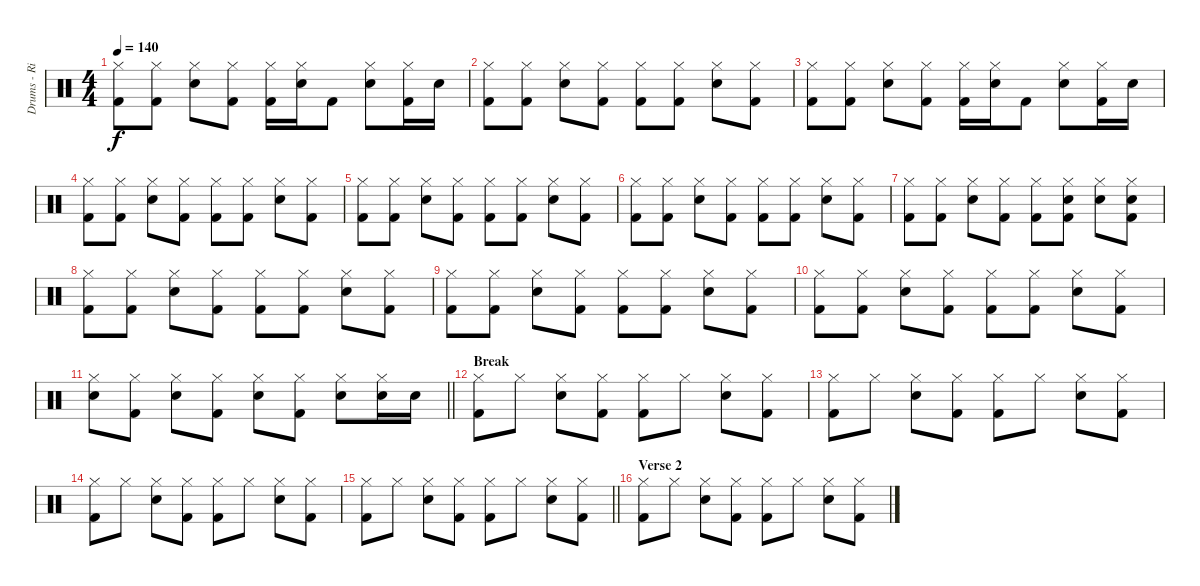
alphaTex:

\track ("Drums - Richard Thomas" "Drums - Ri") {instrument percussion}
\staff {score}
\articulation defaults
\ts (4 4)
\tempo 140
\clef neutral
\ks c
("Kick (hit) 2" "Hi-Hat (closed)").8{dy f} ("Kick (hit) 2" "Hi-Hat (closed)").8 ("Electric Snare (hit)" "Hi-Hat (closed)").8 ("Kick (hit) 2" "Hi-Hat (closed)").8 ("Kick (hit) 2" "Hi-Hat (closed)").16 ("Electric Snare (hit)" "Hi-Hat (closed)").16 "Kick (hit) 2".8 ("Electric Snare (hit)" "Hi-Hat (closed)").8 ("Kick (hit) 2" "Hi-Hat (closed)").16 "Electric Snare (hit)".16 |
("Kick (hit) 2" "Hi-Hat (closed)").8 ("Kick (hit) 2" "Hi-Hat (closed)").8 ("Electric Snare (hit)" "Hi-Hat (closed)").8 ("Kick (hit) 2" "Hi-Hat (closed)").8 ("Kick (hit) 2" "Hi-Hat (closed)").8 ("Kick (hit) 2" "Hi-Hat (closed)").8 ("Electric Snare (hit)" "Hi-Hat (closed)").8 ("Kick (hit) 2" "Hi-Hat (closed)").8 |
("Kick (hit) 2" "Hi-Hat (closed)").8 ("Kick (hit) 2" "Hi-Hat (closed)").8 ("Electric Snare (hit)" "Hi-Hat (closed)").8 ("Kick (hit) 2" "Hi-Hat (closed)").8 ("Kick (hit) 2" "Hi-Hat (closed)").16 ("Electric Snare (hit)" "Hi-Hat (closed)").16 "Kick (hit) 2".8 ("Electric Snare (hit)" "Hi-Hat (closed)").8 ("Kick (hit) 2" "Hi-Hat (closed)").16 "Electric Snare (hit)".16 |
("Kick (hit) 2" "Hi-Hat (closed)").8 ("Kick (hit) 2" "Hi-Hat (closed)").8 ("Electric Snare (hit)" "Hi-Hat (closed)").8 ("Kick (hit) 2" "Hi-Hat (closed)").8 ("Kick (hit) 2" "Hi-Hat (closed)").8 ("Kick (hit) 2" "Hi-Hat (closed)").8 ("Electric Snare (hit)" "Hi-Hat (closed)").8 ("Kick (hit) 2" "Hi-Hat (closed)").8 |
("Kick (hit) 2" "Hi-Hat (closed)").8 ("Kick (hit) 2" "Hi-Hat (closed)").8 ("Electric Snare (hit)" "Hi-Hat (closed)").8 ("Kick (hit) 2" "Hi-Hat (closed)").8 ("Kick (hit) 2" "Hi-Hat (closed)").8 ("Kick (hit) 2" "Hi-Hat (closed)").8 ("Electric Snare (hit)" "Hi-Hat (closed)").8 ("Kick (hit) 2" "Hi-Hat (closed)").8 |
("Kick (hit) 2" "Hi-Hat (closed)").8 ("Kick (hit) 2" "Hi-Hat (closed)").8 ("Electric Snare (hit)" "Hi-Hat (closed)").8 ("Kick (hit) 2" "Hi-Hat (closed)").8 ("Kick (hit) 2" "Hi-Hat (closed)").8 ("Kick (hit) 2" "Hi-Hat (closed)").8 ("Electric Snare (hit)" "Hi-Hat (closed)").8 ("Kick (hit) 2" "Hi-Hat (closed)").8 |
("Kick (hit) 2" "Hi-Hat (closed)").8 ("Kick (hit) 2" "Hi-Hat (closed)").8 ("Electric Snare (hit)" "Hi-Hat (closed)").8 ("Kick (hit) 2" "Hi-Hat (closed)").8 ("Kick (hit) 2" "Hi-Hat (closed)").8 ("Electric Snare (hit)" "Kick (hit) 2" "Hi-Hat (closed)").8 ("Electric Snare (hit)" "Hi-Hat (closed)").8 ("Electric Snare (hit)" "Kick (hit) 2" "Hi-Hat (closed)").8 |
("Kick (hit) 2" "Hi-Hat (closed)").8 ("Kick (hit) 2" "Hi-Hat (closed)").8 ("Electric Snare (hit)" "Hi-Hat (closed)").8 ("Kick (hit) 2" "Hi-Hat (closed)").8 ("Kick (hit) 2" "Hi-Hat (closed)").8 ("Kick (hit) 2" "Hi-Hat (closed)").8 ("Electric Snare (hit)" "Hi-Hat (closed)").8 ("Kick (hit) 2" "Hi-Hat (closed)").8 |
("Kick (hit) 2" "Hi-Hat (closed)").8 ("Kick (hit) 2" "Hi-Hat (closed)").8 ("Electric Snare (hit)" "Hi-Hat (closed)").8 ("Kick (hit) 2" "Hi-Hat (closed)").8 ("Kick (hit) 2" "Hi-Hat (closed)").8 ("Kick (hit) 2" "Hi-Hat (closed)").8 ("Electric Snare (hit)" "Hi-Hat (closed)").8 ("Kick (hit) 2" "Hi-Hat (closed)").8 |
("Kick (hit) 2" "Hi-Hat (closed)").8 ("Kick (hit) 2" "Hi-Hat (closed)").8 ("Electric Snare (hit)" "Hi-Hat (closed)").8 ("Kick (hit) 2" "Hi-Hat (closed)").8 ("Kick (hit) 2" "Hi-Hat (closed)").8 ("Kick (hit) 2" "Hi-Hat (closed)").8 ("Electric Snare (hit)" "Hi-Hat (closed)").8 ("Kick (hit) 2" "Hi-Hat (closed)").8 |
\barLineRight lightlight
("Electric Snare (hit)" "Hi-Hat (closed)").8 ("Kick (hit) 2" "Hi-Hat (closed)").8 ("Electric Snare (hit)" "Hi-Hat (closed)").8 ("Kick (hit) 2" "Hi-Hat (closed)").8 ("Electric Snare (hit)" "Hi-Hat (closed)").8 ("Kick (hit) 2" "Hi-Hat (closed)").8 ("Electric Snare (hit)" "Hi-Hat (closed)").8 ("Electric Snare (hit)" "Hi-Hat (closed)").16 "Electric Snare (hit)".16 |
\section ("" "Break")
("Kick (hit) 2" "Hi-Hat (closed)").8 "Hi-Hat (closed)".8 ("Electric Snare (hit)" "Hi-Hat (closed)").8 ("Kick (hit) 2" "Hi-Hat (closed)").8 ("Kick (hit) 2" "Hi-Hat (closed)").8 "Hi-Hat (closed)".8 ("Electric Snare (hit)" "Hi-Hat (closed)").8 ("Kick (hit) 2" "Hi-Hat (closed)").8 |
("Kick (hit) 2" "Hi-Hat (closed)").8 "Hi-Hat (closed)".8 ("Electric Snare (hit)" "Hi-Hat (closed)").8 ("Kick (hit) 2" "Hi-Hat (closed)").8 ("Kick (hit) 2" "Hi-Hat (closed)").8 "Hi-Hat (closed)".8 ("Electric Snare (hit)" "Hi-Hat (closed)").8 ("Kick (hit) 2" "Hi-Hat (closed)").8 |
("Kick (hit) 2" "Hi-Hat (closed)").8 "Hi-Hat (closed)".8 ("Electric Snare (hit)" "Hi-Hat (closed)").8 ("Kick (hit) 2" "Hi-Hat (closed)").8 ("Kick (hit) 2" "Hi-Hat (closed)").8 "Hi-Hat (closed)".8 ("Electric Snare (hit)" "Hi-Hat (closed)").8 ("Kick (hit) 2" "Hi-Hat (closed)").8 |
\barLineRight lightlight
("Kick (hit) 2" "Hi-Hat (closed)").8 "Hi-Hat (closed)".8 ("Electric Snare (hit)" "Hi-Hat (closed)").8 ("Kick (hit) 2" "Hi-Hat (closed)").8 ("Kick (hit) 2" "Hi-Hat (closed)").8 "Hi-Hat (closed)".8 ("Electric Snare (hit)" "Hi-Hat (closed)").8 ("Kick (hit) 2" "Hi-Hat (closed)").8 |
\section ("" "Verse 2")
("Kick (hit) 2" "Hi-Hat (closed)").8 "Hi-Hat (closed)".8 ("Electric Snare (hit)" "Hi-Hat (closed)").8 ("Kick (hit) 2" "Hi-Hat (closed)").8 ("Kick (hit) 2" "Hi-Hat (closed)").8 "Hi-Hat (closed)".8 ("Electric Snare (hit)" "Hi-Hat (closed)").8 ("Kick (hit) 2" "Hi-Hat (closed)").8
